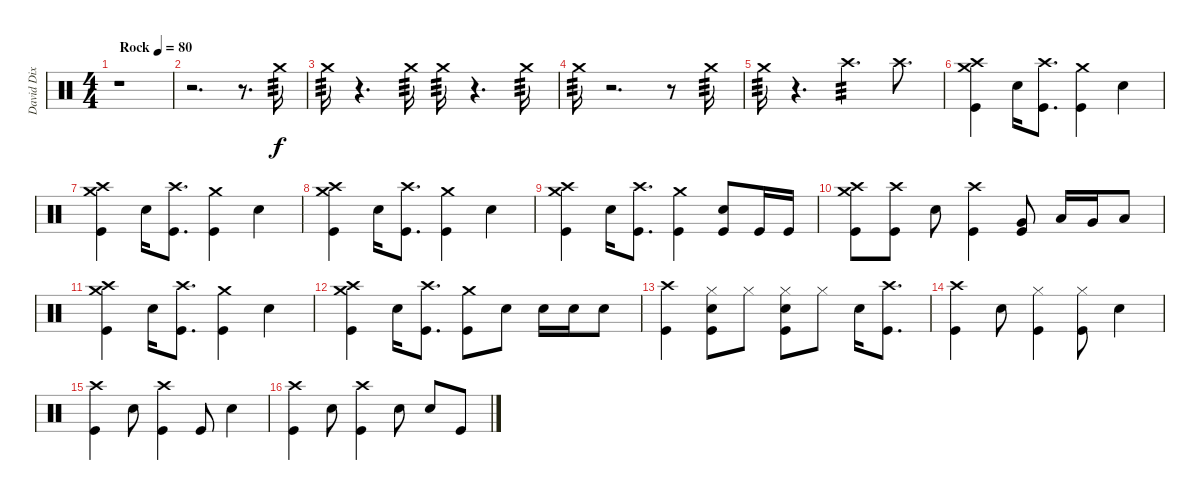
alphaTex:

\track ("David Dix Drums" "David Dix ") {instrument percussion}
\staff {score}
\articulation defaults
\ts (4 4)
\tempo (80 "Rock")
\clef neutral
\ks c
r.1{dy f} |
r.2{d} r.8{d} "Crash medium (hit)".16{tp 3} |
"Crash medium (hit)".16{tp 3} r.4{d} "Crash medium (hit)".16{tp 3} "Crash medium (hit)".16{tp 3} r.4{d} "Crash medium (hit)".16{tp 3} |
"Crash medium (hit)".16{tp 3} r.2{d} r.8 "Crash medium (hit)".16{tp 3} |
"Crash medium (hit)".16{tp 3} r.4{d} "Crash high (hit)".4{d tp 3} "Crash high (hit)".8{d} |
("Crash high (hit)" "Crash medium (hit)" "Kick (hit)").4{volume 14} "Snare (hit) 2".16 ("Crash high (hit)" "Kick (hit)").8{d} ("Crash medium (hit)" "Kick (hit)").4 "Snare (hit) 2".4 |
("Crash high (hit)" "Crash medium (hit)" "Kick (hit)").4 "Snare (hit) 2".16 ("Crash high (hit)" "Kick (hit)").8{d} ("Crash medium (hit)" "Kick (hit)").4 "Snare (hit) 2".4 |
("Crash high (hit)" "Crash medium (hit)" "Kick (hit)").4 "Snare (hit) 2".16 ("Crash high (hit)" "Kick (hit)").8{d} ("Crash medium (hit)" "Kick (hit)").4 "Snare (hit) 2".4 |
("Crash high (hit)" "Crash medium (hit)" "Kick (hit)").4 "Snare (hit) 2".16 ("Crash high (hit)" "Kick (hit)").8{d} ("Crash medium (hit)" "Kick (hit)").4 ("Snare (hit) 2" "Kick (hit)").8 "Kick (hit)".16 "Kick (hit)".16 |
("Crash high (hit)" "Crash medium (hit)" "Kick (hit)").8 ("Crash high (hit)" "Kick (hit)").8 "Snare (hit) 2".8 ("Crash high (hit)" "Kick (hit)").4 ("Very Low Tom (hit)" "Kick (hit)").8 "Low Tom (hit)".16 "Very Low Tom (hit)".16 "Low Floor Tom (hit)".8 |
("Crash high (hit)" "Crash medium (hit)" "Kick (hit)").4 "Snare (hit) 2".16 ("Crash high (hit)" "Kick (hit)").8{d} ("Crash medium (hit)" "Kick (hit)").4 "Snare (hit) 2".4 |
("Crash high (hit)" "Crash medium (hit)" "Kick (hit)").4 "Snare (hit) 2".16 ("Crash high (hit)" "Kick (hit)").8{d} ("Crash medium (hit)" "Kick (hit)").8 "Snare (hit) 2".8 "Snare (hit) 2".16 "Snare (hit) 2".16 "Snare (hit) 2".8 |
("Crash high (hit)" "Kick (hit)").4 ("Hi-Hat (closed)" "Snare (hit) 2" "Kick (hit)").8 "Hi-Hat (closed)".8 ("Hi-Hat (closed)" "Snare (hit) 2" "Kick (hit)").8 "Hi-Hat (closed)".8 "Snare (hit) 2".16 ("Crash high (hit)" "Kick (hit)").8{d} |
("Crash high (hit)" "Kick (hit)").4 "Snare (hit) 2".8 ("Hi-Hat (closed)" "Kick (hit)").4 ("Hi-Hat (closed)" "Kick (hit)").8 "Snare (hit) 2".4 |
("Crash high (hit)" "Kick (hit)").4 "Snare (hit) 2".8 ("Crash high (hit)" "Kick (hit)").4 "Kick (hit)".8 "Snare (hit) 2".4 |
("Crash high (hit)" "Kick (hit)").4 "Snare (hit) 2".8 ("Crash high (hit)" "Kick (hit)").4 "Snare (hit) 2".8 "Snare (hit) 2".8 "Kick (hit)".8
